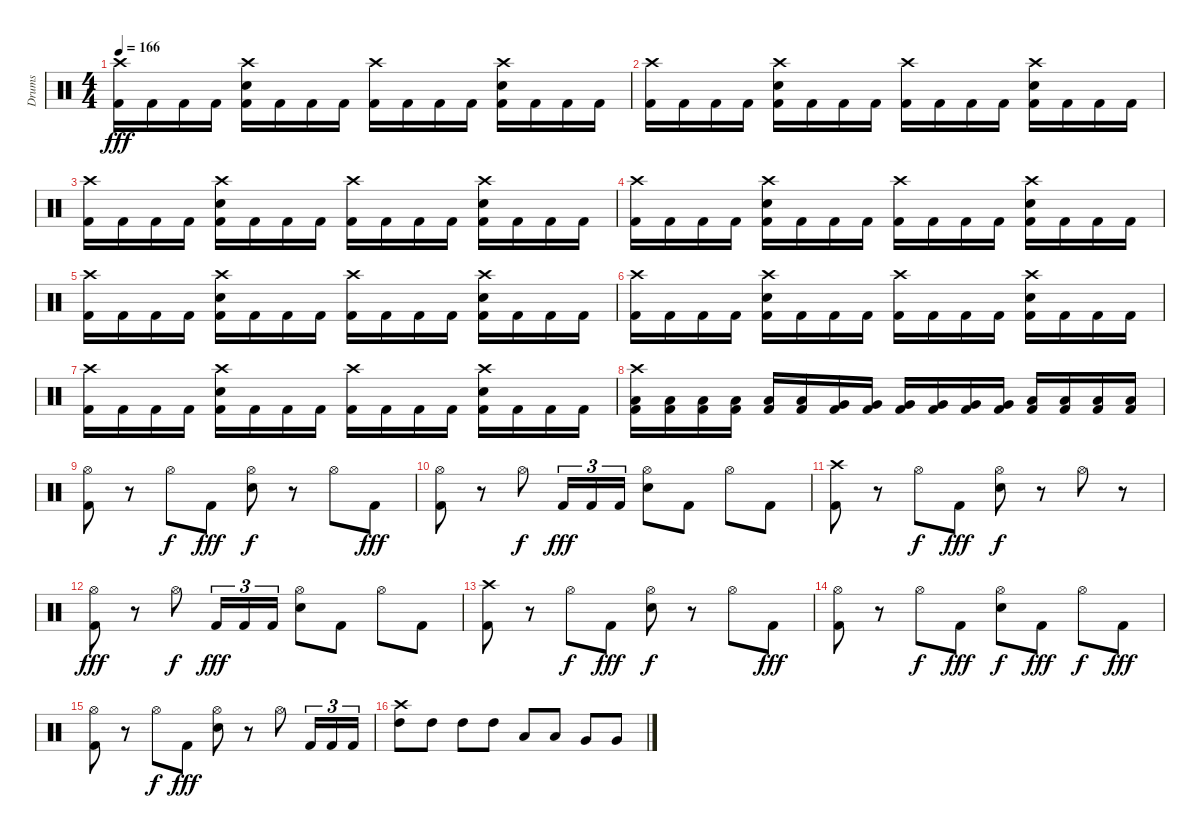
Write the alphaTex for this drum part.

\track ("Drums" "Drums") {instrument percussion}
\staff {score}
\articulation defaults
\ts (4 4)
\tempo 166
\clef neutral
\ks c
("Crash high (hit)" "Kick (hit) 2").16{dy fff} "Kick (hit) 2".16 "Kick (hit) 2".16 "Kick (hit) 2".16 ("Crash high (hit)" "Snare (hit) 2" "Kick (hit) 2").16 "Kick (hit) 2".16 "Kick (hit) 2".16 "Kick (hit) 2".16 ("Crash high (hit)" "Kick (hit) 2").16 "Kick (hit) 2".16 "Kick (hit) 2".16 "Kick (hit) 2".16 ("Crash high (hit)" "Snare (hit) 2" "Kick (hit) 2").16 "Kick (hit) 2".16 "Kick (hit) 2".16 "Kick (hit) 2".16 |
("Crash high (hit)" "Kick (hit) 2").16 "Kick (hit) 2".16 "Kick (hit) 2".16 "Kick (hit) 2".16 ("Crash high (hit)" "Snare (hit) 2" "Kick (hit) 2").16 "Kick (hit) 2".16 "Kick (hit) 2".16 "Kick (hit) 2".16 ("Crash high (hit)" "Kick (hit) 2").16 "Kick (hit) 2".16 "Kick (hit) 2".16 "Kick (hit) 2".16 ("Crash high (hit)" "Snare (hit) 2" "Kick (hit) 2").16 "Kick (hit) 2".16 "Kick (hit) 2".16 "Kick (hit) 2".16 |
("Crash high (hit)" "Kick (hit) 2").16 "Kick (hit) 2".16 "Kick (hit) 2".16 "Kick (hit) 2".16 ("Crash high (hit)" "Snare (hit) 2" "Kick (hit) 2").16 "Kick (hit) 2".16 "Kick (hit) 2".16 "Kick (hit) 2".16 ("Crash high (hit)" "Kick (hit) 2").16 "Kick (hit) 2".16 "Kick (hit) 2".16 "Kick (hit) 2".16 ("Crash high (hit)" "Snare (hit) 2" "Kick (hit) 2").16 "Kick (hit) 2".16 "Kick (hit) 2".16 "Kick (hit) 2".16 |
("Crash high (hit)" "Kick (hit) 2").16 "Kick (hit) 2".16 "Kick (hit) 2".16 "Kick (hit) 2".16 ("Crash high (hit)" "Snare (hit) 2" "Kick (hit) 2").16 "Kick (hit) 2".16 "Kick (hit) 2".16 "Kick (hit) 2".16 ("Crash high (hit)" "Kick (hit) 2").16 "Kick (hit) 2".16 "Kick (hit) 2".16 "Kick (hit) 2".16 ("Crash high (hit)" "Snare (hit) 2" "Kick (hit) 2").16 "Kick (hit) 2".16 "Kick (hit) 2".16 "Kick (hit) 2".16 |
("Crash high (hit)" "Kick (hit) 2").16 "Kick (hit) 2".16 "Kick (hit) 2".16 "Kick (hit) 2".16 ("Crash high (hit)" "Snare (hit) 2" "Kick (hit) 2").16 "Kick (hit) 2".16 "Kick (hit) 2".16 "Kick (hit) 2".16 ("Crash high (hit)" "Kick (hit) 2").16 "Kick (hit) 2".16 "Kick (hit) 2".16 "Kick (hit) 2".16 ("Crash high (hit)" "Snare (hit) 2" "Kick (hit) 2").16 "Kick (hit) 2".16 "Kick (hit) 2".16 "Kick (hit) 2".16 |
("Crash high (hit)" "Kick (hit) 2").16 "Kick (hit) 2".16 "Kick (hit) 2".16 "Kick (hit) 2".16 ("Crash high (hit)" "Snare (hit) 2" "Kick (hit) 2").16 "Kick (hit) 2".16 "Kick (hit) 2".16 "Kick (hit) 2".16 ("Crash high (hit)" "Kick (hit) 2").16 "Kick (hit) 2".16 "Kick (hit) 2".16 "Kick (hit) 2".16 ("Crash high (hit)" "Snare (hit) 2" "Kick (hit) 2").16 "Kick (hit) 2".16 "Kick (hit) 2".16 "Kick (hit) 2".16 |
("Crash high (hit)" "Kick (hit) 2").16 "Kick (hit) 2".16 "Kick (hit) 2".16 "Kick (hit) 2".16 ("Crash high (hit)" "Snare (hit) 2" "Kick (hit) 2").16 "Kick (hit) 2".16 "Kick (hit) 2".16 "Kick (hit) 2".16 ("Crash high (hit)" "Kick (hit) 2").16 "Kick (hit) 2".16 "Kick (hit) 2".16 "Kick (hit) 2".16 ("Crash high (hit)" "Snare (hit) 2" "Kick (hit) 2").16 "Kick (hit) 2".16 "Kick (hit) 2".16 "Kick (hit) 2".16 |
("Crash high (hit)" "Low Tom (hit)" "Kick (hit) 2").16 ("Low Tom (hit)" "Kick (hit) 2").16 ("Low Tom (hit)" "Kick (hit) 2").16 ("Low Tom (hit)" "Kick (hit) 2").16 ("Low Tom (hit)" "Kick (hit) 2").16 ("Low Tom (hit)" "Kick (hit) 2").16 ("Very Low Tom (hit)" "Kick (hit) 2").16 ("Very Low Tom (hit)" "Kick (hit) 2").16 ("Very Low Tom (hit)" "Kick (hit) 2").16 ("Very Low Tom (hit)" "Kick (hit) 2").16 ("Very Low Tom (hit)" "Kick (hit) 2").16 ("Very Low Tom (hit)" "Kick (hit) 2").16 ("Low Floor Tom (hit)" "Kick (hit) 2").16 ("Low Floor Tom (hit)" "Kick (hit) 2").16 ("Low Floor Tom (hit)" "Kick (hit) 2").16 ("Low Floor Tom (hit)" "Kick (hit) 2").16 |
("Hi-Hat (open)" "Kick (hit) 2").8 r.8 "Hi-Hat (open)".8{dy f} "Kick (hit) 2".8{dy fff} ("Hi-Hat (open)" "Snare (hit) 2").8{dy f} r.8 "Hi-Hat (open)".8 "Kick (hit) 2".8{dy fff} |
("Hi-Hat (open)" "Kick (hit) 2").8 r.8 "Hi-Hat (open)".8{dy f} "Kick (hit) 2".16{tu (3 2) dy fff} "Kick (hit) 2".16{tu (3 2)} "Kick (hit) 2".16{tu (3 2)} ("Hi-Hat (open)" "Snare (hit) 2").8 "Kick (hit) 2".8 "Hi-Hat (open)".8 "Kick (hit) 2".8 |
("Crash high (hit)" "Kick (hit) 2").8 r.8 "Hi-Hat (open)".8{dy f} "Kick (hit) 2".8{dy fff} ("Hi-Hat (open)" "Snare (hit) 2").8{dy f} r.8 "Hi-Hat (open)".8 r.8 |
("Hi-Hat (open)" "Kick (hit) 2").8{dy fff} r.8 "Hi-Hat (open)".8{dy f} "Kick (hit) 2".16{tu (3 2) dy fff} "Kick (hit) 2".16{tu (3 2)} "Kick (hit) 2".16{tu (3 2)} ("Hi-Hat (open)" "Snare (hit) 2").8 "Kick (hit) 2".8 "Hi-Hat (open)".8 "Kick (hit) 2".8 |
("Crash high (hit)" "Kick (hit) 2").8 r.8 "Hi-Hat (open)".8{dy f} "Kick (hit) 2".8{dy fff} ("Hi-Hat (open)" "Snare (hit) 2").8{dy f} r.8 "Hi-Hat (open)".8 "Kick (hit) 2".8{dy fff} |
("Hi-Hat (open)" "Kick (hit) 2").8 r.8 "Hi-Hat (open)".8{dy f} "Kick (hit) 2".8{dy fff} ("Hi-Hat (open)" "Snare (hit) 2").8{dy f} "Kick (hit) 2".8{dy fff} "Hi-Hat (open)".8{dy f} "Kick (hit) 2".8{dy fff} |
("Hi-Hat (open)" "Kick (hit) 2").8 r.8 "Hi-Hat (open)".8{dy f} "Kick (hit) 2".8{dy fff} ("Hi-Hat (open)" "Snare (hit) 2").8 r.8 "Hi-Hat (open)".8 "Kick (hit) 2".16{tu (3 2)} "Kick (hit) 2".16{tu (3 2)} "Kick (hit) 2".16{tu (3 2)} |
("Crash high (hit)" "High Tom (hit)").8 "High Tom (hit)".8 "High Tom (hit)".8 "High Tom (hit)".8 "Low Tom (hit)".8 "Low Tom (hit)".8 "Very Low Tom (hit)".8 "Very Low Tom (hit)".8
